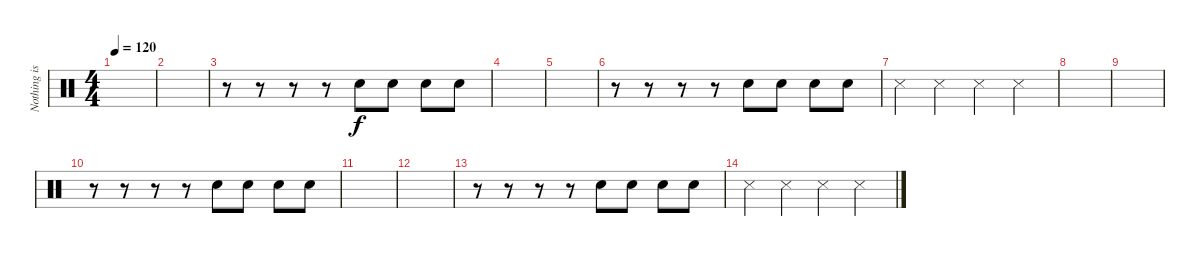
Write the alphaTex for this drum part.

\track ("Nothing is drummer" "Nothing is") {instrument percussion}
\staff {score}
\articulation defaults
\ts (4 4)
\tempo 120
\clef neutral
\ks c
|
|
r.8 r.8 r.8 r.8 "Electric Snare (hit)".8 "Electric Snare (hit)".8 "Electric Snare (hit)".8 "Electric Snare (hit)".8 |
|
|
r.8 r.8 r.8 r.8 "Electric Snare (hit)".8 "Electric Snare (hit)".8 "Electric Snare (hit)".8 "Electric Snare (hit)".8 |
"Metronome (hit)".4 "Metronome (hit)".4 "Metronome (hit)".4 "Metronome (hit)".4 |
|
|
r.8 r.8 r.8 r.8 "Electric Snare (hit)".8 "Electric Snare (hit)".8 "Electric Snare (hit)".8 "Electric Snare (hit)".8 |
|
|
r.8 r.8 r.8 r.8 "Electric Snare (hit)".8 "Electric Snare (hit)".8 "Electric Snare (hit)".8 "Electric Snare (hit)".8 |
"Metronome (hit)".4 "Metronome (hit)".4 "Metronome (hit)".4 "Metronome (hit)".4
